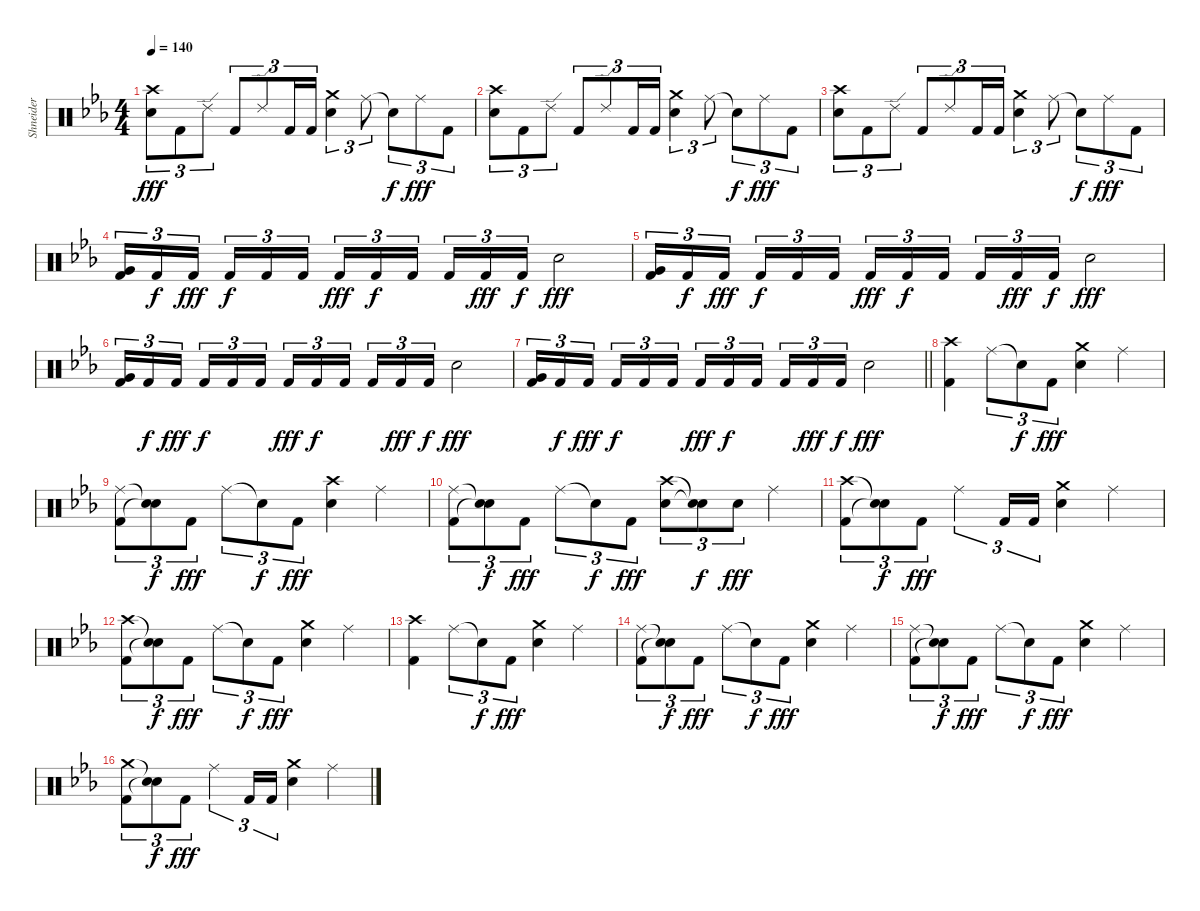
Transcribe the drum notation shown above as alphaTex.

\track ("Shneider" "Shneider") {instrument percussion}
\staff {score}
\articulation defaults
\ts (4 4)
\tempo 140
\clef neutral
\ks eb
("Crash high (hit)" "Snare (hit) 2").8{tu (3 2) dy fff} "Kick (hit) 2".8{tu (3 2)} "Ride (edge) 2".8{tu (3 2)} "Kick (hit) 2".8{tu (3 2)} "Ride (edge) 2".8{tu (3 2)} "Kick (hit) 2".16{tu (3 2)} "Kick (hit) 2".16{tu (3 2)} ("Crash medium (hit)" "Snare (hit) 2").4{tu (3 2)} "Ride (middle)".8{tu (3 2)} "Snare (hit)"{t}.8{tu (3 2) dy f} "Ride (middle)".8{tu (3 2) dy fff} "Kick (hit) 2".8{tu (3 2)} |
("Crash high (hit)" "Snare (hit) 2").8{tu (3 2)} "Kick (hit) 2".8{tu (3 2)} "Ride (edge) 2".8{tu (3 2)} "Kick (hit) 2".8{tu (3 2)} "Ride (edge) 2".8{tu (3 2)} "Kick (hit) 2".16{tu (3 2)} "Kick (hit) 2".16{tu (3 2)} ("Crash medium (hit)" "Snare (hit) 2").4{tu (3 2)} "Ride (middle)".8{tu (3 2)} "Snare (hit)"{t}.8{tu (3 2) dy f} "Ride (middle)".8{tu (3 2) dy fff} "Kick (hit) 2".8{tu (3 2)} |
("Crash high (hit)" "Snare (hit) 2").8{tu (3 2)} "Kick (hit) 2".8{tu (3 2)} "Ride (edge) 2".8{tu (3 2)} "Kick (hit) 2".8{tu (3 2)} "Ride (edge) 2".8{tu (3 2)} "Kick (hit) 2".16{tu (3 2)} "Kick (hit) 2".16{tu (3 2)} ("Crash medium (hit)" "Snare (hit) 2").4{tu (3 2)} "Ride (middle)".8{tu (3 2)} "Snare (hit)"{t}.8{tu (3 2) dy f} "Ride (middle)".8{tu (3 2) dy fff} "Kick (hit) 2".8{tu (3 2)} |
("Very Low Tom (hit)" "Kick (hit) 2").16{tu (3 2)} "Kick (hit) 2".16{tu (3 2) dy f} "Kick (hit) 2".16{tu (3 2) dy fff beam splitsecondary} "Kick (hit) 2".16{tu (3 2) dy f} "Kick (hit) 2".16{tu (3 2)} "Kick (hit) 2".16{tu (3 2)} "Kick (hit) 2".16{tu (3 2) dy fff} "Kick (hit) 2".16{tu (3 2) dy f} "Kick (hit) 2".16{tu (3 2) beam splitsecondary} "Kick (hit) 2".16{tu (3 2)} "Kick (hit) 2".16{tu (3 2) dy fff} "Kick (hit) 2".16{tu (3 2) dy f} "Snare (hit) 2".2{dy fff} |
("Very Low Tom (hit)" "Kick (hit) 2").16{tu (3 2)} "Kick (hit) 2".16{tu (3 2) dy f} "Kick (hit) 2".16{tu (3 2) dy fff beam splitsecondary} "Kick (hit) 2".16{tu (3 2) dy f} "Kick (hit) 2".16{tu (3 2)} "Kick (hit) 2".16{tu (3 2)} "Kick (hit) 2".16{tu (3 2) dy fff} "Kick (hit) 2".16{tu (3 2) dy f} "Kick (hit) 2".16{tu (3 2) beam splitsecondary} "Kick (hit) 2".16{tu (3 2)} "Kick (hit) 2".16{tu (3 2) dy fff} "Kick (hit) 2".16{tu (3 2) dy f} "Snare (hit) 2".2{dy fff} |
("Very Low Tom (hit)" "Kick (hit) 2").16{tu (3 2)} "Kick (hit) 2".16{tu (3 2) dy f} "Kick (hit) 2".16{tu (3 2) dy fff beam splitsecondary} "Kick (hit) 2".16{tu (3 2) dy f} "Kick (hit) 2".16{tu (3 2)} "Kick (hit) 2".16{tu (3 2)} "Kick (hit) 2".16{tu (3 2) dy fff} "Kick (hit) 2".16{tu (3 2) dy f} "Kick (hit) 2".16{tu (3 2) beam splitsecondary} "Kick (hit) 2".16{tu (3 2)} "Kick (hit) 2".16{tu (3 2) dy fff} "Kick (hit) 2".16{tu (3 2) dy f} "Snare (hit) 2".2{dy fff} |
\barLineRight lightlight
("Very Low Tom (hit)" "Kick (hit) 2").16{tu (3 2)} "Kick (hit) 2".16{tu (3 2) dy f} "Kick (hit) 2".16{tu (3 2) dy fff beam splitsecondary} "Kick (hit) 2".16{tu (3 2) dy f} "Kick (hit) 2".16{tu (3 2)} "Kick (hit) 2".16{tu (3 2)} "Kick (hit) 2".16{tu (3 2) dy fff} "Kick (hit) 2".16{tu (3 2) dy f} "Kick (hit) 2".16{tu (3 2) beam splitsecondary} "Kick (hit) 2".16{tu (3 2)} "Kick (hit) 2".16{tu (3 2) dy fff} "Kick (hit) 2".16{tu (3 2) dy f} "Snare (hit) 2".2{dy fff} |
("Crash high (hit)" "Kick (hit) 2").4 "Ride (middle)".8{tu (3 2)} "Snare (hit)"{t}.8{tu (3 2) dy f} "Kick (hit) 2".8{tu (3 2) dy fff} ("Crash medium (hit)" "Snare (hit) 2").4 "Ride (middle)".4 |
("Ride (middle)" "Kick (hit) 2").8{tu (3 2)} ("Snare (hit)"{t} "Snare (hit)"{t}).8{tu (3 2) dy f} "Kick (hit) 2".8{tu (3 2) dy fff} "Ride (middle)".8{tu (3 2)} "Snare (hit)"{t}.8{tu (3 2) dy f} "Kick (hit) 2".8{tu (3 2) dy fff} ("Crash high (hit)" "Snare (hit) 2").4 "Ride (middle)".4 |
("Ride (middle)" "Kick (hit) 2").8{tu (3 2)} ("Snare (hit)"{t} "Snare (hit)"{t}).8{tu (3 2) dy f} "Kick (hit) 2".8{tu (3 2) dy fff} "Ride (middle)".8{tu (3 2)} "Snare (hit)"{t}.8{tu (3 2) dy f} "Kick (hit) 2".8{tu (3 2) dy fff} ("Crash high (hit)" "Snare (hit) 2").8{tu (3 2)} ("Snare (hit)"{t} "Snare (hit)"{t}).8{tu (3 2) dy f} "Snare (hit) 2".8{tu (3 2) dy fff} "Ride (middle)".4 |
("Crash high (hit)" "Kick (hit) 2").8{tu (3 2)} ("Snare (hit)"{t} "Snare (hit)"{t}).8{tu (3 2) dy f} "Kick (hit) 2".8{tu (3 2) dy fff} "Ride (middle)".4{tu (3 2)} "Kick (hit) 2".16{tu (3 2)} "Kick (hit) 2".16{tu (3 2)} ("Crash medium (hit)" "Snare (hit) 2").4 "Ride (middle)".4 |
("Crash high (hit)" "Kick (hit) 2").8{tu (3 2)} ("Snare (hit)"{t} "Snare (hit)"{t}).8{tu (3 2) dy f} "Kick (hit) 2".8{tu (3 2) dy fff} "Ride (middle)".8{tu (3 2)} "Snare (hit)"{t}.8{tu (3 2) dy f} "Kick (hit) 2".8{tu (3 2) dy fff} ("Crash medium (hit)" "Snare (hit) 2").4 "Ride (middle)".4 |
("Crash high (hit)" "Kick (hit) 2").4 "Ride (middle)".8{tu (3 2)} "Snare (hit)"{t}.8{tu (3 2) dy f} "Kick (hit) 2".8{tu (3 2) dy fff} ("Crash medium (hit)" "Snare (hit) 2").4 "Ride (middle)".4 |
("Ride (middle)" "Kick (hit) 2").8{tu (3 2)} ("Snare (hit)"{t} "Snare (hit)"{t}).8{tu (3 2) dy f} "Kick (hit) 2".8{tu (3 2) dy fff} "Ride (middle)".8{tu (3 2)} "Snare (hit)"{t}.8{tu (3 2) dy f} "Kick (hit) 2".8{tu (3 2) dy fff} ("Crash medium (hit)" "Snare (hit) 2").4 "Ride (middle)".4 |
("Ride (middle)" "Kick (hit) 2").8{tu (3 2)} ("Snare (hit)"{t} "Snare (hit)"{t}).8{tu (3 2) dy f} "Kick (hit) 2".8{tu (3 2) dy fff} "Ride (middle)".8{tu (3 2)} "Snare (hit)"{t}.8{tu (3 2) dy f} "Kick (hit) 2".8{tu (3 2) dy fff} ("Crash medium (hit)" "Snare (hit) 2").4 "Ride (middle)".4 |
("Crash medium (hit)" "Kick (hit) 2").8{tu (3 2)} ("Snare (hit)"{t} "Snare (hit)"{t}).8{tu (3 2) dy f} "Kick (hit) 2".8{tu (3 2) dy fff} "Ride (middle)".4{tu (3 2)} "Kick (hit) 2".16{tu (3 2)} "Kick (hit) 2".16{tu (3 2)} ("Crash medium (hit)" "Snare (hit) 2").4 "Ride (middle)".4
